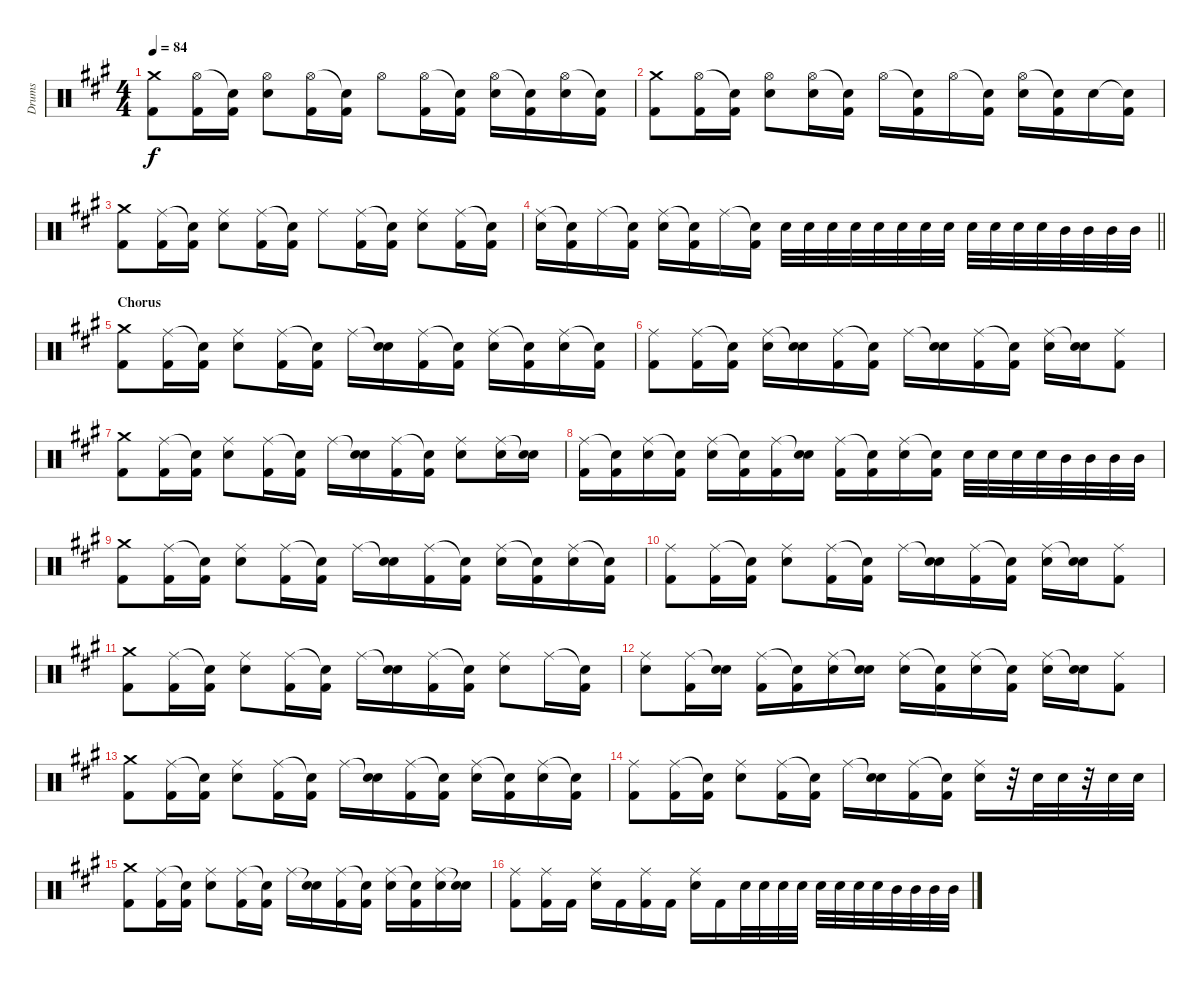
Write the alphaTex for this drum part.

\track ("Drums" "Drums") {instrument percussion}
\staff {score}
\articulation defaults
\ts (4 4)
\tempo 84
\clef neutral
\ks a
("Crash medium (hit)" "Kick (hit) 2").8{dy f} ("Hi-Hat (open)" "Kick (hit) 2").16 ("Snare (hit)"{t} "Kick (hit) 2").16 ("Hi-Hat (open)" "Electric Snare (hit)").8 ("Hi-Hat (open)" "Kick (hit) 2").16 ("Snare (hit)"{t} "Kick (hit) 2").16 "Hi-Hat (open)".8 ("Hi-Hat (open)" "Kick (hit) 2").16 ("Snare (hit)"{t} "Kick (hit) 2").16 ("Hi-Hat (open)" "Electric Snare (hit)").16 ("Snare (hit)"{t} "Kick (hit) 2").16 ("Hi-Hat (open)" "Electric Snare (hit)").16 ("Snare (hit)"{t} "Kick (hit) 2").16 |
("Crash medium (hit)" "Kick (hit) 2").8 ("Hi-Hat (open)" "Kick (hit) 2").16 ("Snare (hit)"{t} "Kick (hit) 2").16 ("Hi-Hat (open)" "Electric Snare (hit)").8 ("Hi-Hat (open)" "Electric Snare (hit)").16 ("Snare (hit)"{t} "Kick (hit) 2").16 "Hi-Hat (open)".16 ("Snare (hit)"{t} "Kick (hit) 2").16 "Hi-Hat (open)".16 ("Snare (hit)"{t} "Kick (hit) 2").16 ("Hi-Hat (open)" "Electric Snare (hit)").16 ("Snare (hit)"{t} "Kick (hit) 2").16 "Electric Snare (hit)".16 ("Snare (hit)"{t} "Kick (hit) 2").16 |
("Crash medium (hit)" "Kick (hit) 2").8 ("Ride (middle)" "Kick (hit) 2").16 ("Snare (hit)"{t} "Kick (hit) 2").16 ("Ride (middle)" "Electric Snare (hit)").8 ("Ride (middle)" "Kick (hit) 2").16 ("Snare (hit)"{t} "Kick (hit) 2").16 "Ride (middle)".8 ("Ride (middle)" "Kick (hit) 2").16 ("Snare (hit)"{t} "Kick (hit) 2").16 ("Ride (middle)" "Electric Snare (hit)").8 ("Ride (middle)" "Kick (hit) 2").16 ("Snare (hit)"{t} "Kick (hit) 2").16 |
\barLineRight lightlight
("Ride (middle)" "Electric Snare (hit)").16 ("Snare (hit)"{t} "Kick (hit) 2").16 "Ride (middle)".16 ("Snare (hit)"{t} "Kick (hit) 2").16 ("Ride (middle)" "Electric Snare (hit)").16 ("Snare (hit)"{t} "Kick (hit) 2").16 "Ride (middle)".16 ("Snare (hit)"{t} "Kick (hit) 2").16 "Electric Snare (hit)".32 "Electric Snare (hit)".32 "Electric Snare (hit)".32 "Electric Snare (hit)".32 "Electric Snare (hit)".32 "Electric Snare (hit)".32 "Electric Snare (hit)".32 "Electric Snare (hit)".32 "Electric Snare (hit)".32 "Electric Snare (hit)".32 "Electric Snare (hit)".32 "Electric Snare (hit)".32 "Mid Tom (hit)".32 "Mid Tom (hit)".32 "Mid Tom (hit)".32 "Mid Tom (hit)".32 |
\section ("" "Chorus")
("Crash medium (hit)" "Kick (hit) 2").8 ("Ride (middle)" "Kick (hit) 2").16 ("Snare (hit)"{t} "Kick (hit) 2").16 ("Ride (middle)" "Electric Snare (hit)").8 ("Ride (middle)" "Kick (hit) 2").16 ("Snare (hit)"{t} "Kick (hit) 2").16 "Ride (middle)".16 ("Snare (hit)"{t} "Electric Snare (hit)").16 ("Ride (middle)" "Kick (hit) 2").16 ("Snare (hit)"{t} "Kick (hit) 2").16 ("Ride (middle)" "Electric Snare (hit)").16 ("Snare (hit)"{t} "Kick (hit) 2").16 ("Ride (middle)" "Electric Snare (hit)").16 ("Snare (hit)"{t} "Kick (hit) 2").16 |
("Ride (middle)" "Kick (hit) 2").8 ("Ride (middle)" "Kick (hit) 2").16 ("Snare (hit)"{t} "Kick (hit) 2").16 ("Ride (middle)" "Electric Snare (hit)").16 ("Snare (hit)"{t} "Electric Snare (hit)").16 ("Ride (middle)" "Kick (hit) 2").16 ("Snare (hit)"{t} "Kick (hit) 2").16 "Ride (middle)".16 ("Snare (hit)"{t} "Electric Snare (hit)").16 ("Ride (middle)" "Kick (hit) 2").16 ("Snare (hit)"{t} "Kick (hit) 2").16 ("Ride (middle)" "Electric Snare (hit)").16 ("Snare (hit)"{t} "Electric Snare (hit)").16 ("Ride (middle)" "Kick (hit) 2").8 |
("Crash medium (hit)" "Kick (hit) 2").8 ("Ride (middle)" "Kick (hit) 2").16 ("Snare (hit)"{t} "Kick (hit) 2").16 ("Ride (middle)" "Electric Snare (hit)").8 ("Ride (middle)" "Kick (hit) 2").16 ("Snare (hit)"{t} "Kick (hit) 2").16 "Ride (middle)".16 ("Snare (hit)"{t} "Electric Snare (hit)").16 ("Ride (middle)" "Kick (hit) 2").16 ("Snare (hit)"{t} "Kick (hit) 2").16 ("Ride (middle)" "Electric Snare (hit)").8 ("Ride (middle)" "Electric Snare (hit)").16 ("Snare (hit)"{t} "Electric Snare (hit)").16 |
("Ride (middle)" "Kick (hit) 2").16 ("Snare (hit)"{t} "Kick (hit) 2").16 ("Ride (middle)" "Electric Snare (hit)").16 ("Snare (hit)"{t} "Kick (hit) 2").16 ("Ride (middle)" "Electric Snare (hit)").16 ("Snare (hit)"{t} "Kick (hit) 2").16 ("Ride (middle)" "Kick (hit) 2").16 ("Snare (hit)"{t} "Electric Snare (hit)").16 ("Ride (middle)" "Kick (hit) 2").16 ("Snare (hit)"{t} "Kick (hit) 2").16 ("Ride (middle)" "Electric Snare (hit)").16 ("Snare (hit)"{t} "Kick (hit) 2").16 "Electric Snare (hit)".32 "Electric Snare (hit)".32 "Electric Snare (hit)".32 "Electric Snare (hit)".32 "Mid Tom (hit)".32 "Mid Tom (hit)".32 "Mid Tom (hit)".32 "Mid Tom (hit)".32 |
("Crash medium (hit)" "Kick (hit) 2").8 ("Ride (middle)" "Kick (hit) 2").16 ("Snare (hit)"{t} "Kick (hit) 2").16 ("Ride (middle)" "Electric Snare (hit)").8 ("Ride (middle)" "Kick (hit) 2").16 ("Snare (hit)"{t} "Kick (hit) 2").16 "Ride (middle)".16 ("Snare (hit)"{t} "Electric Snare (hit)").16 ("Ride (middle)" "Kick (hit) 2").16 ("Snare (hit)"{t} "Kick (hit) 2").16 ("Ride (middle)" "Electric Snare (hit)").16 ("Snare (hit)"{t} "Kick (hit) 2").16 ("Ride (middle)" "Electric Snare (hit)").16 ("Snare (hit)"{t} "Kick (hit) 2").16 |
("Ride (middle)" "Kick (hit) 2").8 ("Ride (middle)" "Kick (hit) 2").16 ("Snare (hit)"{t} "Kick (hit) 2").16 ("Ride (middle)" "Electric Snare (hit)").8 ("Ride (middle)" "Kick (hit) 2").16 ("Snare (hit)"{t} "Kick (hit) 2").16 "Ride (middle)".16 ("Snare (hit)"{t} "Electric Snare (hit)").16 ("Ride (middle)" "Kick (hit) 2").16 ("Snare (hit)"{t} "Kick (hit) 2").16 ("Ride (middle)" "Electric Snare (hit)").16 ("Snare (hit)"{t} "Electric Snare (hit)").16 ("Ride (middle)" "Kick (hit) 2").8 |
("Crash medium (hit)" "Kick (hit) 2").8 ("Ride (middle)" "Kick (hit) 2").16 ("Snare (hit)"{t} "Kick (hit) 2").16 ("Ride (middle)" "Electric Snare (hit)").8 ("Ride (middle)" "Kick (hit) 2").16 ("Snare (hit)"{t} "Kick (hit) 2").16 "Ride (middle)".16 ("Snare (hit)"{t} "Electric Snare (hit)").16 ("Ride (middle)" "Kick (hit) 2").16 ("Snare (hit)"{t} "Kick (hit) 2").16 ("Ride (middle)" "Electric Snare (hit)").8 "Ride (middle)".16 ("Snare (hit)"{t} "Kick (hit) 2").16 |
("Ride (middle)" "Electric Snare (hit)").8 ("Ride (middle)" "Kick (hit) 2").16 ("Snare (hit)"{t} "Electric Snare (hit)").16 ("Ride (middle)" "Kick (hit) 2").16 ("Snare (hit)"{t} "Kick (hit) 2").16 ("Ride (middle)" "Electric Snare (hit)").16 ("Snare (hit)"{t} "Electric Snare (hit)").16 ("Ride (middle)" "Electric Snare (hit)").16 ("Snare (hit)"{t} "Kick (hit) 2").16 ("Ride (middle)" "Electric Snare (hit)").16 ("Snare (hit)"{t} "Kick (hit) 2").16 ("Ride (middle)" "Electric Snare (hit)").16 ("Snare (hit)"{t} "Electric Snare (hit)").16 ("Ride (middle)" "Kick (hit) 2").8 |
("Crash medium (hit)" "Kick (hit) 2").8 ("Ride (middle)" "Kick (hit) 2").16 ("Snare (hit)"{t} "Kick (hit) 2").16 ("Ride (middle)" "Electric Snare (hit)").8 ("Ride (middle)" "Kick (hit) 2").16 ("Snare (hit)"{t} "Kick (hit) 2").16 "Ride (middle)".16 ("Snare (hit)"{t} "Electric Snare (hit)").16 ("Ride (middle)" "Kick (hit) 2").16 ("Snare (hit)"{t} "Kick (hit) 2").16 ("Ride (middle)" "Electric Snare (hit)").16 ("Snare (hit)"{t} "Kick (hit) 2").16 ("Ride (middle)" "Electric Snare (hit)").16 ("Snare (hit)"{t} "Kick (hit) 2").16 |
("Ride (middle)" "Kick (hit) 2").8 ("Ride (middle)" "Kick (hit) 2").16 ("Snare (hit)"{t} "Kick (hit) 2").16 ("Ride (middle)" "Electric Snare (hit)").8 ("Ride (middle)" "Kick (hit) 2").16 ("Snare (hit)"{t} "Kick (hit) 2").16 "Ride (middle)".16 ("Snare (hit)"{t} "Electric Snare (hit)").16 ("Ride (middle)" "Kick (hit) 2").16 ("Snare (hit)"{t} "Kick (hit) 2").16 ("Ride (middle)" "Electric Snare (hit)").16 r.32 "Electric Snare (hit)".32 "Electric Snare (hit)".32 r.32 "Electric Snare (hit)".32 "Electric Snare (hit)".32 |
("Crash medium (hit)" "Kick (hit) 2").8 ("Ride (middle)" "Kick (hit) 2").16 ("Snare (hit)"{t} "Kick (hit) 2").16 ("Ride (middle)" "Electric Snare (hit)").8 ("Ride (middle)" "Kick (hit) 2").16 ("Snare (hit)"{t} "Kick (hit) 2").16 "Ride (middle)".16 ("Snare (hit)"{t} "Electric Snare (hit)").16 ("Ride (middle)" "Kick (hit) 2").16 ("Snare (hit)"{t} "Kick (hit) 2").16 ("Ride (middle)" "Electric Snare (hit)").16 ("Snare (hit)"{t} "Kick (hit) 2").16 ("Ride (middle)" "Electric Snare (hit)").16 ("Snare (hit)"{t} "Electric Snare (hit)").16 |
("Ride (middle)" "Kick (hit) 2").8 ("Ride (middle)" "Kick (hit) 2").16 "Kick (hit) 2".16 ("Ride (middle)" "Electric Snare (hit)").16 "Kick (hit) 2".16 ("Ride (middle)" "Kick (hit) 2").16 "Kick (hit) 2".16 ("Ride (middle)" "Electric Snare (hit)").16 "Kick (hit) 2".16 "Electric Snare (hit)".32 "Electric Snare (hit)".32 "Electric Snare (hit)".32 "Electric Snare (hit)".32 "Electric Snare (hit)".32 "Electric Snare (hit)".32 "Electric Snare (hit)".32 "Electric Snare (hit)".32 "Mid Tom (hit)".32 "Mid Tom (hit)".32 "Mid Tom (hit)".32 "Mid Tom (hit)".32
